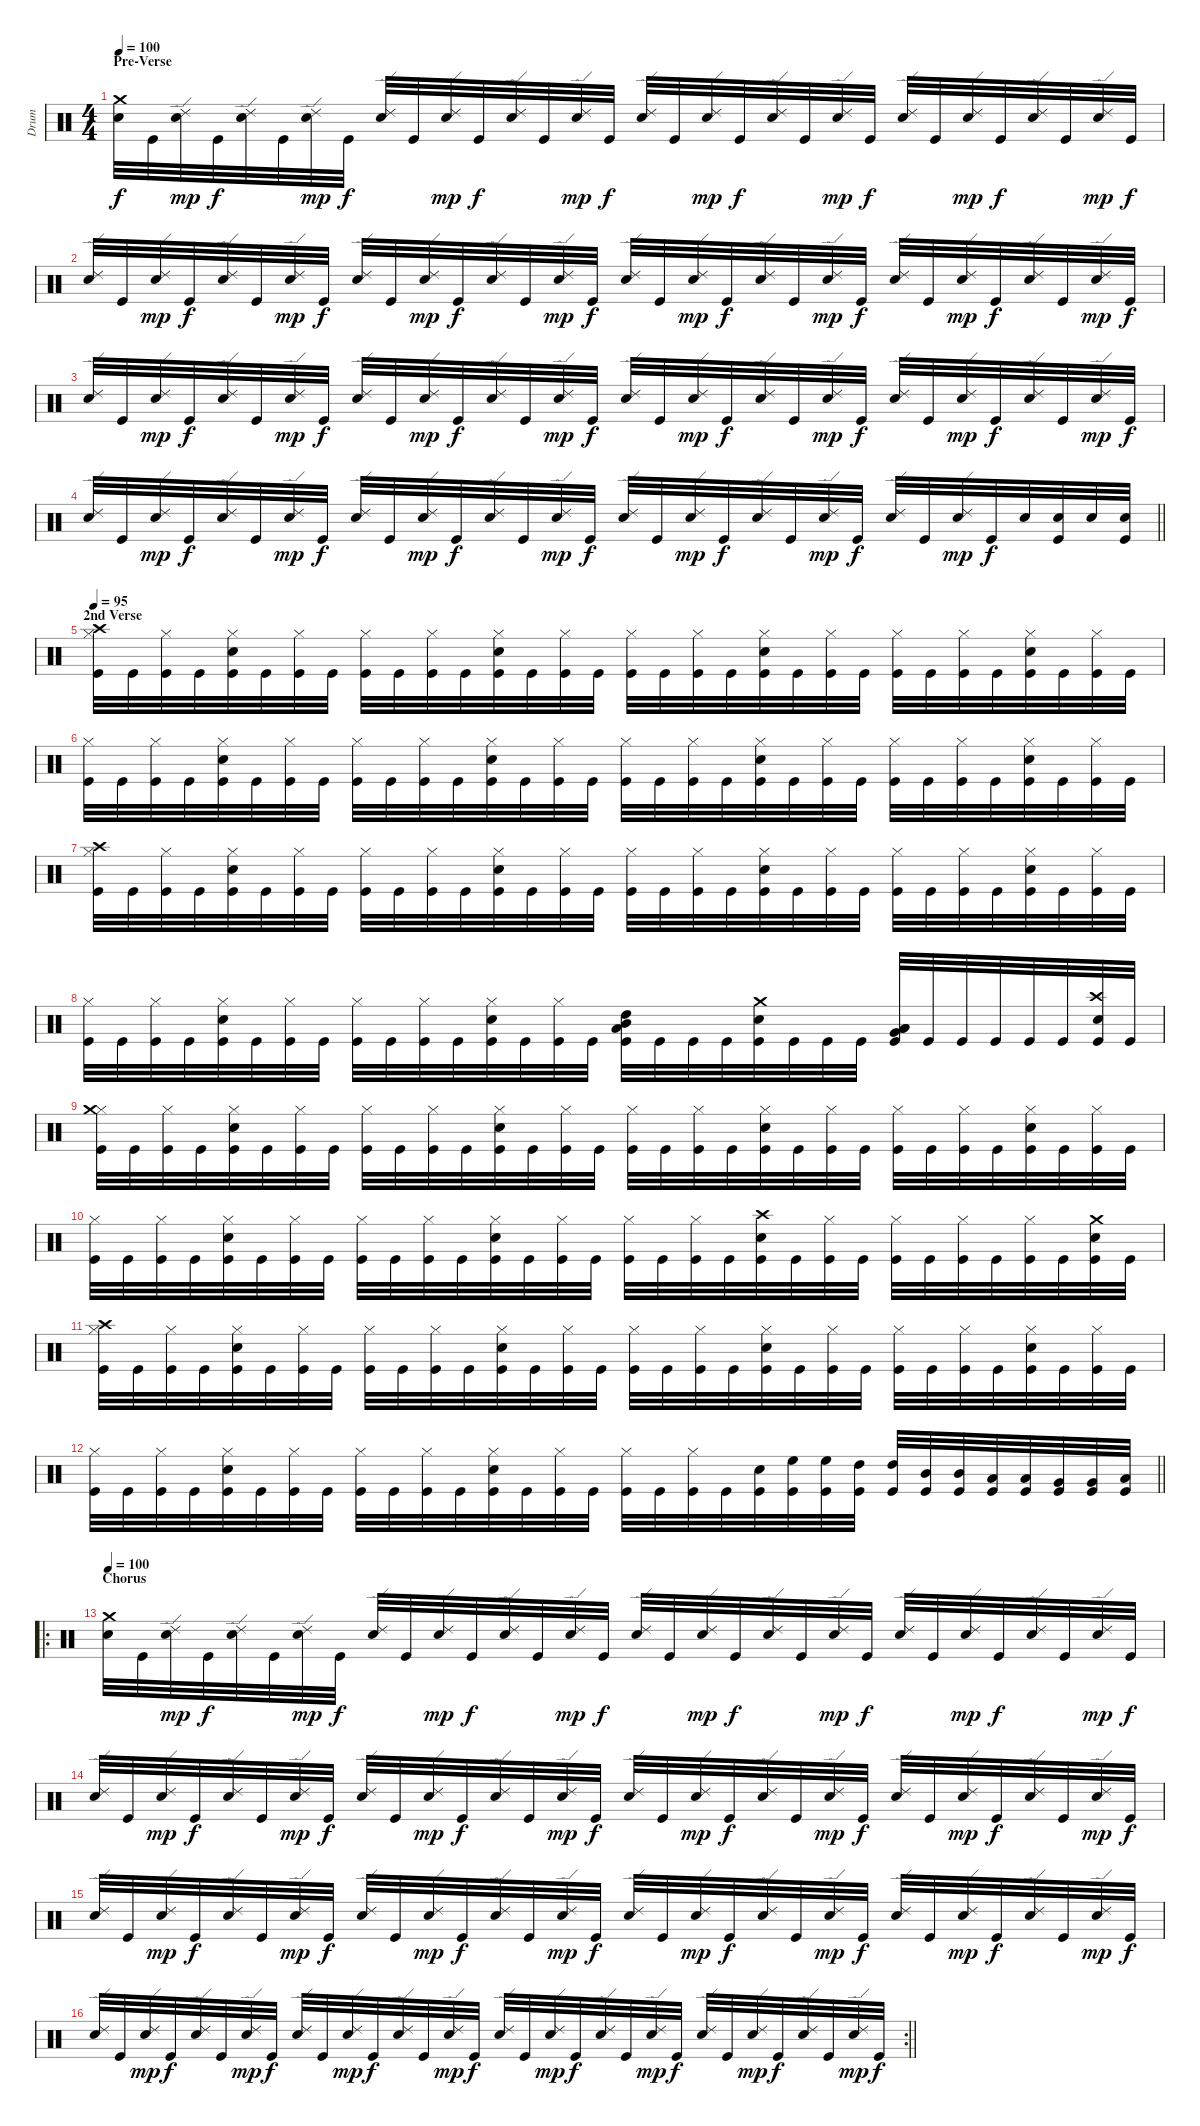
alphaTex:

\track ("Drum" "Drum") {instrument percussion}
\staff {score}
\articulation defaults
\ts (4 4)
\section ("" "Pre-Verse")
\tempo 100
\clef neutral
\ks c
("Snare (hit) 2" "Crash medium (hit)").32{dy f} "Kick (hit)".32 ("Ride (edge) 2" "Snare (hit) 2").32{dy mp} "Kick (hit)".32{dy f} ("Ride (edge) 2" "Snare (hit) 2").32 "Kick (hit)".32 ("Ride (edge) 2" "Snare (hit) 2").32{dy mp} "Kick (hit)".32{dy f} ("Ride (edge) 2" "Snare (hit) 2").32 "Kick (hit)".32 ("Ride (edge) 2" "Snare (hit) 2").32{dy mp} "Kick (hit)".32{dy f} ("Ride (edge) 2" "Snare (hit) 2").32 "Kick (hit)".32 ("Ride (edge) 2" "Snare (hit) 2").32{dy mp} "Kick (hit)".32{dy f} ("Ride (edge) 2" "Snare (hit) 2").32 "Kick (hit)".32 ("Ride (edge) 2" "Snare (hit) 2").32{dy mp} "Kick (hit)".32{dy f} ("Ride (edge) 2" "Snare (hit) 2").32 "Kick (hit)".32 ("Ride (edge) 2" "Snare (hit) 2").32{dy mp} "Kick (hit)".32{dy f} ("Ride (edge) 2" "Snare (hit) 2").32 "Kick (hit)".32 ("Ride (edge) 2" "Snare (hit) 2").32{dy mp} "Kick (hit)".32{dy f} ("Ride (edge) 2" "Snare (hit) 2").32 "Kick (hit)".32 ("Ride (edge) 2" "Snare (hit) 2").32{dy mp} "Kick (hit)".32{dy f} |
("Ride (edge) 2" "Snare (hit) 2").32 "Kick (hit)".32 ("Ride (edge) 2" "Snare (hit) 2").32{dy mp} "Kick (hit)".32{dy f} ("Ride (edge) 2" "Snare (hit) 2").32 "Kick (hit)".32 ("Ride (edge) 2" "Snare (hit) 2").32{dy mp} "Kick (hit)".32{dy f} ("Ride (edge) 2" "Snare (hit) 2").32 "Kick (hit)".32 ("Ride (edge) 2" "Snare (hit) 2").32{dy mp} "Kick (hit)".32{dy f} ("Ride (edge) 2" "Snare (hit) 2").32 "Kick (hit)".32 ("Ride (edge) 2" "Snare (hit) 2").32{dy mp} "Kick (hit)".32{dy f} ("Ride (edge) 2" "Snare (hit) 2").32 "Kick (hit)".32 ("Ride (edge) 2" "Snare (hit) 2").32{dy mp} "Kick (hit)".32{dy f} ("Ride (edge) 2" "Snare (hit) 2").32 "Kick (hit)".32 ("Ride (edge) 2" "Snare (hit) 2").32{dy mp} "Kick (hit)".32{dy f} ("Ride (edge) 2" "Snare (hit) 2").32 "Kick (hit)".32 ("Ride (edge) 2" "Snare (hit) 2").32{dy mp} "Kick (hit)".32{dy f} ("Ride (edge) 2" "Snare (hit) 2").32 "Kick (hit)".32 ("Ride (edge) 2" "Snare (hit) 2").32{dy mp} "Kick (hit)".32{dy f} |
("Ride (edge) 2" "Snare (hit) 2").32 "Kick (hit)".32 ("Ride (edge) 2" "Snare (hit) 2").32{dy mp} "Kick (hit)".32{dy f} ("Ride (edge) 2" "Snare (hit) 2").32 "Kick (hit)".32 ("Ride (edge) 2" "Snare (hit) 2").32{dy mp} "Kick (hit)".32{dy f} ("Ride (edge) 2" "Snare (hit) 2").32 "Kick (hit)".32 ("Ride (edge) 2" "Snare (hit) 2").32{dy mp} "Kick (hit)".32{dy f} ("Ride (edge) 2" "Snare (hit) 2").32 "Kick (hit)".32 ("Ride (edge) 2" "Snare (hit) 2").32{dy mp} "Kick (hit)".32{dy f} ("Ride (edge) 2" "Snare (hit) 2").32 "Kick (hit)".32 ("Ride (edge) 2" "Snare (hit) 2").32{dy mp} "Kick (hit)".32{dy f} ("Ride (edge) 2" "Snare (hit) 2").32 "Kick (hit)".32 ("Ride (edge) 2" "Snare (hit) 2").32{dy mp} "Kick (hit)".32{dy f} ("Ride (edge) 2" "Snare (hit) 2").32 "Kick (hit)".32 ("Ride (edge) 2" "Snare (hit) 2").32{dy mp} "Kick (hit)".32{dy f} ("Ride (edge) 2" "Snare (hit) 2").32 "Kick (hit)".32 ("Ride (edge) 2" "Snare (hit) 2").32{dy mp} "Kick (hit)".32{dy f} |
\barLineRight lightlight
("Ride (edge) 2" "Snare (hit) 2").32 "Kick (hit)".32 ("Ride (edge) 2" "Snare (hit) 2").32{dy mp} "Kick (hit)".32{dy f} ("Ride (edge) 2" "Snare (hit) 2").32 "Kick (hit)".32 ("Ride (edge) 2" "Snare (hit) 2").32{dy mp} "Kick (hit)".32{dy f} ("Ride (edge) 2" "Snare (hit) 2").32 "Kick (hit)".32 ("Ride (edge) 2" "Snare (hit) 2").32{dy mp} "Kick (hit)".32{dy f} ("Ride (edge) 2" "Snare (hit) 2").32 "Kick (hit)".32 ("Ride (edge) 2" "Snare (hit) 2").32{dy mp} "Kick (hit)".32{dy f} ("Ride (edge) 2" "Snare (hit) 2").32 "Kick (hit)".32 ("Ride (edge) 2" "Snare (hit) 2").32{dy mp} "Kick (hit)".32{dy f} ("Ride (edge) 2" "Snare (hit) 2").32 "Kick (hit)".32 ("Ride (edge) 2" "Snare (hit) 2").32{dy mp} "Kick (hit)".32{dy f} ("Ride (edge) 2" "Snare (hit) 2").32 "Kick (hit)".32 ("Ride (edge) 2" "Snare (hit) 2").32{dy mp} "Kick (hit)".32{dy f} "Snare (hit) 2".32 ("Kick (hit)" "Snare (hit) 2").32 "Snare (hit) 2".32 ("Kick (hit)" "Snare (hit) 2").32 |
\section ("" "2nd Verse")
\tempo 95
("Kick (hit)" "Hi-Hat (closed)" "Crash high (hit)").32 "Kick (hit)".32 ("Kick (hit)" "Hi-Hat (closed)").32 "Kick (hit)".32 ("Kick (hit)" "Hi-Hat (closed)" "Electric Snare (hit)").32 "Kick (hit)".32 ("Kick (hit)" "Hi-Hat (closed)").32 "Kick (hit)".32 ("Kick (hit)" "Hi-Hat (closed)").32 "Kick (hit)".32 ("Kick (hit)" "Hi-Hat (closed)").32 "Kick (hit)".32 ("Kick (hit)" "Hi-Hat (closed)" "Electric Snare (hit)").32 "Kick (hit)".32 ("Kick (hit)" "Hi-Hat (closed)").32 "Kick (hit)".32 ("Kick (hit)" "Hi-Hat (closed)").32 "Kick (hit)".32 ("Kick (hit)" "Hi-Hat (closed)").32 "Kick (hit)".32 ("Kick (hit)" "Hi-Hat (closed)" "Electric Snare (hit)").32 "Kick (hit)".32 ("Kick (hit)" "Hi-Hat (closed)").32 "Kick (hit)".32 ("Kick (hit)" "Hi-Hat (closed)").32 "Kick (hit)".32 ("Kick (hit)" "Hi-Hat (closed)").32 "Kick (hit)".32 ("Kick (hit)" "Hi-Hat (closed)" "Electric Snare (hit)").32 "Kick (hit)".32 ("Kick (hit)" "Hi-Hat (closed)").32 "Kick (hit)".32 |
("Kick (hit)" "Hi-Hat (closed)").32 "Kick (hit)".32 ("Kick (hit)" "Hi-Hat (closed)").32 "Kick (hit)".32 ("Kick (hit)" "Hi-Hat (closed)" "Electric Snare (hit)").32 "Kick (hit)".32 ("Kick (hit)" "Hi-Hat (closed)").32 "Kick (hit)".32 ("Kick (hit)" "Hi-Hat (closed)").32 "Kick (hit)".32 ("Kick (hit)" "Hi-Hat (closed)").32 "Kick (hit)".32 ("Kick (hit)" "Hi-Hat (closed)" "Electric Snare (hit)").32 "Kick (hit)".32 ("Kick (hit)" "Hi-Hat (closed)").32 "Kick (hit)".32 ("Kick (hit)" "Hi-Hat (closed)").32 "Kick (hit)".32 ("Kick (hit)" "Hi-Hat (closed)").32 "Kick (hit)".32 ("Kick (hit)" "Hi-Hat (closed)" "Electric Snare (hit)").32 "Kick (hit)".32 ("Kick (hit)" "Hi-Hat (closed)").32 "Kick (hit)".32 ("Kick (hit)" "Hi-Hat (closed)").32 "Kick (hit)".32 ("Kick (hit)" "Hi-Hat (closed)").32 "Kick (hit)".32 ("Kick (hit)" "Hi-Hat (closed)" "Electric Snare (hit)").32 "Kick (hit)".32 ("Kick (hit)" "Hi-Hat (closed)").32 "Kick (hit)".32 |
("Kick (hit)" "Hi-Hat (closed)" "Crash high (hit)").32 "Kick (hit)".32 ("Kick (hit)" "Hi-Hat (closed)").32 "Kick (hit)".32 ("Kick (hit)" "Hi-Hat (closed)" "Electric Snare (hit)").32 "Kick (hit)".32 ("Kick (hit)" "Hi-Hat (closed)").32 "Kick (hit)".32 ("Kick (hit)" "Hi-Hat (closed)").32 "Kick (hit)".32 ("Kick (hit)" "Hi-Hat (closed)").32 "Kick (hit)".32 ("Kick (hit)" "Hi-Hat (closed)" "Electric Snare (hit)").32 "Kick (hit)".32 ("Kick (hit)" "Hi-Hat (closed)").32 "Kick (hit)".32 ("Kick (hit)" "Hi-Hat (closed)").32 "Kick (hit)".32 ("Kick (hit)" "Hi-Hat (closed)").32 "Kick (hit)".32 ("Kick (hit)" "Hi-Hat (closed)" "Electric Snare (hit)").32 "Kick (hit)".32 ("Kick (hit)" "Hi-Hat (closed)").32 "Kick (hit)".32 ("Kick (hit)" "Hi-Hat (closed)").32 "Kick (hit)".32 ("Kick (hit)" "Hi-Hat (closed)").32 "Kick (hit)".32 ("Kick (hit)" "Hi-Hat (closed)" "Electric Snare (hit)").32 "Kick (hit)".32 ("Kick (hit)" "Hi-Hat (closed)").32 "Kick (hit)".32 |
("Kick (hit)" "Hi-Hat (closed)").32 "Kick (hit)".32 ("Kick (hit)" "Hi-Hat (closed)").32 "Kick (hit)".32 ("Kick (hit)" "Hi-Hat (closed)" "Electric Snare (hit)").32 "Kick (hit)".32 ("Kick (hit)" "Hi-Hat (closed)").32 "Kick (hit)".32 ("Kick (hit)" "Hi-Hat (closed)").32 "Kick (hit)".32 ("Kick (hit)" "Hi-Hat (closed)").32 "Kick (hit)".32 ("Kick (hit)" "Hi-Hat (closed)" "Electric Snare (hit)").32 "Kick (hit)".32 ("Kick (hit)" "Hi-Hat (closed)").32 "Kick (hit)".32 ("Kick (hit)" "High Tom (hit)" "Mid Tom (hit)" "Low Tom (hit)").32{bd 480} "Kick (hit)".32 "Kick (hit)".32 "Kick (hit)".32 ("Kick (hit)" "Electric Snare (hit)" "Crash medium (hit)").32 "Kick (hit)".32 "Kick (hit)".32 "Kick (hit)".32 ("Kick (hit)" "Low Tom (hit)" "Very Low Tom (hit)" "Low Floor Tom (hit)").32{bd 480} "Kick (hit)".32 "Kick (hit)".32 "Kick (hit)".32 "Kick (hit)".32 "Kick (hit)".32 ("Kick (hit)" "Electric Snare (hit)" "Crash high (hit)").32 "Kick (hit)".32 |
("Kick (hit)" "Hi-Hat (closed)" "Crash medium (hit)").32 "Kick (hit)".32 ("Kick (hit)" "Hi-Hat (closed)").32 "Kick (hit)".32 ("Kick (hit)" "Hi-Hat (closed)" "Electric Snare (hit)").32 "Kick (hit)".32 ("Kick (hit)" "Hi-Hat (closed)").32 "Kick (hit)".32 ("Kick (hit)" "Hi-Hat (closed)").32 "Kick (hit)".32 ("Kick (hit)" "Hi-Hat (closed)").32 "Kick (hit)".32 ("Kick (hit)" "Hi-Hat (closed)" "Electric Snare (hit)").32 "Kick (hit)".32 ("Kick (hit)" "Hi-Hat (closed)").32 "Kick (hit)".32 ("Kick (hit)" "Hi-Hat (closed)").32 "Kick (hit)".32 ("Kick (hit)" "Hi-Hat (closed)").32 "Kick (hit)".32 ("Kick (hit)" "Hi-Hat (closed)" "Electric Snare (hit)").32 "Kick (hit)".32 ("Kick (hit)" "Hi-Hat (closed)").32 "Kick (hit)".32 ("Kick (hit)" "Hi-Hat (closed)").32 "Kick (hit)".32 ("Kick (hit)" "Hi-Hat (closed)").32 "Kick (hit)".32 ("Kick (hit)" "Hi-Hat (closed)" "Electric Snare (hit)").32 "Kick (hit)".32 ("Kick (hit)" "Hi-Hat (closed)").32 "Kick (hit)".32 |
("Kick (hit)" "Hi-Hat (closed)").32 "Kick (hit)".32 ("Kick (hit)" "Hi-Hat (closed)").32 "Kick (hit)".32 ("Kick (hit)" "Hi-Hat (closed)" "Electric Snare (hit)").32 "Kick (hit)".32 ("Kick (hit)" "Hi-Hat (closed)").32 "Kick (hit)".32 ("Kick (hit)" "Hi-Hat (closed)").32 "Kick (hit)".32 ("Kick (hit)" "Hi-Hat (closed)").32 "Kick (hit)".32 ("Kick (hit)" "Hi-Hat (closed)" "Electric Snare (hit)").32 "Kick (hit)".32 ("Kick (hit)" "Hi-Hat (closed)").32 "Kick (hit)".32 ("Kick (hit)" "Hi-Hat (closed)").32 "Kick (hit)".32 ("Kick (hit)" "Hi-Hat (closed)").32 "Kick (hit)".32 ("Kick (hit)" "Electric Snare (hit)" "Crash high (hit)").32 "Kick (hit)".32 ("Kick (hit)" "Hi-Hat (closed)").32 "Kick (hit)".32 ("Kick (hit)" "Hi-Hat (closed)").32 "Kick (hit)".32 ("Kick (hit)" "Hi-Hat (closed)").32 "Kick (hit)".32 ("Kick (hit)" "Hi-Hat (closed)").32 "Kick (hit)".32 ("Kick (hit)" "Electric Snare (hit)" "Crash medium (hit)").32 "Kick (hit)".32 |
("Kick (hit)" "Hi-Hat (closed)" "Crash high (hit)").32 "Kick (hit)".32 ("Kick (hit)" "Hi-Hat (closed)").32 "Kick (hit)".32 ("Kick (hit)" "Hi-Hat (closed)" "Electric Snare (hit)").32 "Kick (hit)".32 ("Kick (hit)" "Hi-Hat (closed)").32 "Kick (hit)".32 ("Kick (hit)" "Hi-Hat (closed)").32 "Kick (hit)".32 ("Kick (hit)" "Hi-Hat (closed)").32 "Kick (hit)".32 ("Kick (hit)" "Hi-Hat (closed)" "Electric Snare (hit)").32 "Kick (hit)".32 ("Kick (hit)" "Hi-Hat (closed)").32 "Kick (hit)".32 ("Kick (hit)" "Hi-Hat (closed)").32 "Kick (hit)".32 ("Kick (hit)" "Hi-Hat (closed)").32 "Kick (hit)".32 ("Kick (hit)" "Hi-Hat (closed)" "Electric Snare (hit)").32 "Kick (hit)".32 ("Kick (hit)" "Hi-Hat (closed)").32 "Kick (hit)".32 ("Kick (hit)" "Hi-Hat (closed)").32 "Kick (hit)".32 ("Kick (hit)" "Hi-Hat (closed)").32 "Kick (hit)".32 ("Kick (hit)" "Hi-Hat (closed)" "Electric Snare (hit)").32 "Kick (hit)".32 ("Kick (hit)" "Hi-Hat (closed)").32 "Kick (hit)".32 |
\barLineRight lightlight
("Kick (hit)" "Hi-Hat (closed)").32 "Kick (hit)".32 ("Kick (hit)" "Hi-Hat (closed)").32 "Kick (hit)".32 ("Kick (hit)" "Hi-Hat (closed)" "Electric Snare (hit)").32 "Kick (hit)".32 ("Kick (hit)" "Hi-Hat (closed)").32 "Kick (hit)".32 ("Kick (hit)" "Hi-Hat (closed)").32 "Kick (hit)".32 ("Kick (hit)" "Hi-Hat (closed)").32 "Kick (hit)".32 ("Kick (hit)" "Hi-Hat (closed)" "Electric Snare (hit)").32 "Kick (hit)".32 ("Kick (hit)" "Hi-Hat (closed)").32 "Kick (hit)".32 ("Kick (hit)" "Hi-Hat (closed)").32 "Kick (hit)".32 ("Kick (hit)" "Hi-Hat (closed)").32 "Kick (hit)".32 ("Kick (hit)" "Electric Snare (hit)").32 ("Kick (hit)" "High Floor Tom (hit)").32 ("Kick (hit)" "High Floor Tom (hit)").32 ("Kick (hit)" "High Tom (hit)").32 ("Kick (hit)" "High Tom (hit)").32 ("Kick (hit)" "Mid Tom (hit)").32 ("Kick (hit)" "Mid Tom (hit)").32 ("Kick (hit)" "Low Tom (hit)").32 ("Kick (hit)" "Low Tom (hit)").32 ("Kick (hit)" "Very Low Tom (hit)").32 ("Kick (hit)" "Very Low Tom (hit)").32 ("Kick (hit)" "Low Floor Tom (hit)").32 |
\ro
\section ("" "Chorus")
\tempo 100
("Snare (hit) 2" "Crash medium (hit)").32 "Kick (hit)".32 ("Ride (edge) 2" "Snare (hit) 2").32{dy mp} "Kick (hit)".32{dy f} ("Ride (edge) 2" "Snare (hit) 2").32 "Kick (hit)".32 ("Ride (edge) 2" "Snare (hit) 2").32{dy mp} "Kick (hit)".32{dy f} ("Ride (edge) 2" "Snare (hit) 2").32 "Kick (hit)".32 ("Ride (edge) 2" "Snare (hit) 2").32{dy mp} "Kick (hit)".32{dy f} ("Ride (edge) 2" "Snare (hit) 2").32 "Kick (hit)".32 ("Ride (edge) 2" "Snare (hit) 2").32{dy mp} "Kick (hit)".32{dy f} ("Ride (edge) 2" "Snare (hit) 2").32 "Kick (hit)".32 ("Ride (edge) 2" "Snare (hit) 2").32{dy mp} "Kick (hit)".32{dy f} ("Ride (edge) 2" "Snare (hit) 2").32 "Kick (hit)".32 ("Ride (edge) 2" "Snare (hit) 2").32{dy mp} "Kick (hit)".32{dy f} ("Ride (edge) 2" "Snare (hit) 2").32 "Kick (hit)".32 ("Ride (edge) 2" "Snare (hit) 2").32{dy mp} "Kick (hit)".32{dy f} ("Ride (edge) 2" "Snare (hit) 2").32 "Kick (hit)".32 ("Ride (edge) 2" "Snare (hit) 2").32{dy mp} "Kick (hit)".32{dy f} |
("Ride (edge) 2" "Snare (hit) 2").32 "Kick (hit)".32 ("Ride (edge) 2" "Snare (hit) 2").32{dy mp} "Kick (hit)".32{dy f} ("Ride (edge) 2" "Snare (hit) 2").32 "Kick (hit)".32 ("Ride (edge) 2" "Snare (hit) 2").32{dy mp} "Kick (hit)".32{dy f} ("Ride (edge) 2" "Snare (hit) 2").32 "Kick (hit)".32 ("Ride (edge) 2" "Snare (hit) 2").32{dy mp} "Kick (hit)".32{dy f} ("Ride (edge) 2" "Snare (hit) 2").32 "Kick (hit)".32 ("Ride (edge) 2" "Snare (hit) 2").32{dy mp} "Kick (hit)".32{dy f} ("Ride (edge) 2" "Snare (hit) 2").32 "Kick (hit)".32 ("Ride (edge) 2" "Snare (hit) 2").32{dy mp} "Kick (hit)".32{dy f} ("Ride (edge) 2" "Snare (hit) 2").32 "Kick (hit)".32 ("Ride (edge) 2" "Snare (hit) 2").32{dy mp} "Kick (hit)".32{dy f} ("Ride (edge) 2" "Snare (hit) 2").32 "Kick (hit)".32 ("Ride (edge) 2" "Snare (hit) 2").32{dy mp} "Kick (hit)".32{dy f} ("Ride (edge) 2" "Snare (hit) 2").32 "Kick (hit)".32 ("Ride (edge) 2" "Snare (hit) 2").32{dy mp} "Kick (hit)".32{dy f} |
("Ride (edge) 2" "Snare (hit) 2").32 "Kick (hit)".32 ("Ride (edge) 2" "Snare (hit) 2").32{dy mp} "Kick (hit)".32{dy f} ("Ride (edge) 2" "Snare (hit) 2").32 "Kick (hit)".32 ("Ride (edge) 2" "Snare (hit) 2").32{dy mp} "Kick (hit)".32{dy f} ("Ride (edge) 2" "Snare (hit) 2").32 "Kick (hit)".32 ("Ride (edge) 2" "Snare (hit) 2").32{dy mp} "Kick (hit)".32{dy f} ("Ride (edge) 2" "Snare (hit) 2").32 "Kick (hit)".32 ("Ride (edge) 2" "Snare (hit) 2").32{dy mp} "Kick (hit)".32{dy f} ("Ride (edge) 2" "Snare (hit) 2").32 "Kick (hit)".32 ("Ride (edge) 2" "Snare (hit) 2").32{dy mp} "Kick (hit)".32{dy f} ("Ride (edge) 2" "Snare (hit) 2").32 "Kick (hit)".32 ("Ride (edge) 2" "Snare (hit) 2").32{dy mp} "Kick (hit)".32{dy f} ("Ride (edge) 2" "Snare (hit) 2").32 "Kick (hit)".32 ("Ride (edge) 2" "Snare (hit) 2").32{dy mp} "Kick (hit)".32{dy f} ("Ride (edge) 2" "Snare (hit) 2").32 "Kick (hit)".32 ("Ride (edge) 2" "Snare (hit) 2").32{dy mp} "Kick (hit)".32{dy f} |
\rc 2
\barLineRight lightlight
("Ride (edge) 2" "Snare (hit) 2").32 "Kick (hit)".32 ("Ride (edge) 2" "Snare (hit) 2").32{dy mp} "Kick (hit)".32{dy f} ("Ride (edge) 2" "Snare (hit) 2").32 "Kick (hit)".32 ("Ride (edge) 2" "Snare (hit) 2").32{dy mp} "Kick (hit)".32{dy f} ("Ride (edge) 2" "Snare (hit) 2").32 "Kick (hit)".32 ("Ride (edge) 2" "Snare (hit) 2").32{dy mp} "Kick (hit)".32{dy f} ("Ride (edge) 2" "Snare (hit) 2").32 "Kick (hit)".32 ("Ride (edge) 2" "Snare (hit) 2").32{dy mp} "Kick (hit)".32{dy f} ("Ride (edge) 2" "Snare (hit) 2").32 "Kick (hit)".32 ("Ride (edge) 2" "Snare (hit) 2").32{dy mp} "Kick (hit)".32{dy f} ("Ride (edge) 2" "Snare (hit) 2").32 "Kick (hit)".32 ("Ride (edge) 2" "Snare (hit) 2").32{dy mp} "Kick (hit)".32{dy f} ("Ride (edge) 2" "Snare (hit) 2").32 "Kick (hit)".32 ("Ride (edge) 2" "Snare (hit) 2").32{dy mp} "Kick (hit)".32{dy f} ("Ride (edge) 2" "Snare (hit) 2").32 "Kick (hit)".32 ("Ride (edge) 2" "Snare (hit) 2").32{dy mp} "Kick (hit)".32{dy f}
